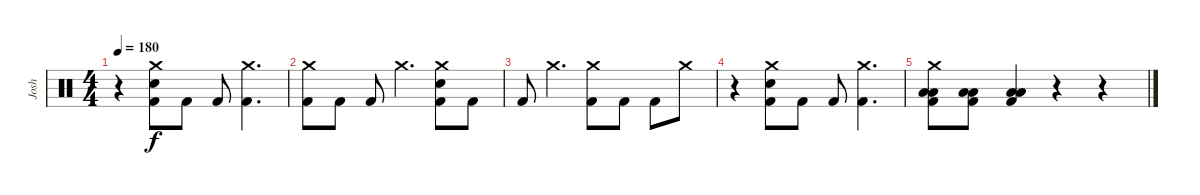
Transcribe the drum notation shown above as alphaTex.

\track ("Josh" "Josh") {instrument percussion}
\staff {score}
\articulation defaults
\ts (4 4)
\tempo 180
\clef neutral
\ks c
r.4{dy f} ("Crash medium (hit)" "Electric Snare (hit)" "Kick (hit) 2").8 "Kick (hit) 2".8 "Kick (hit) 2".8 ("Crash medium (hit)" "Kick (hit) 2").4{d} |
("Crash medium (hit)" "Kick (hit) 2").8 "Kick (hit) 2".8 "Kick (hit) 2".8 "Crash medium (hit)".4{d} ("Crash medium (hit)" "Electric Snare (hit)" "Kick (hit) 2").8 "Kick (hit) 2".8 |
"Kick (hit) 2".8 "Crash medium (hit)".4{d} ("Crash medium (hit)" "Kick (hit) 2").8 "Kick (hit) 2".8 "Kick (hit) 2".8 "Crash medium (hit)".8 |
r.4 ("Crash medium (hit)" "Electric Snare (hit)" "Kick (hit) 2").8 "Kick (hit) 2".8 "Kick (hit) 2".8 ("Crash medium (hit)" "Kick (hit) 2").4{d} |
("Crash medium (hit)" "Low Tom (hit)" "Low Floor Tom (hit)" "Kick (hit) 2").8 ("Low Tom (hit)" "Low Floor Tom (hit)" "Kick (hit) 2").8 ("Low Tom (hit)" "Low Floor Tom (hit)" "Kick (hit) 2").4 r.4 r.4
